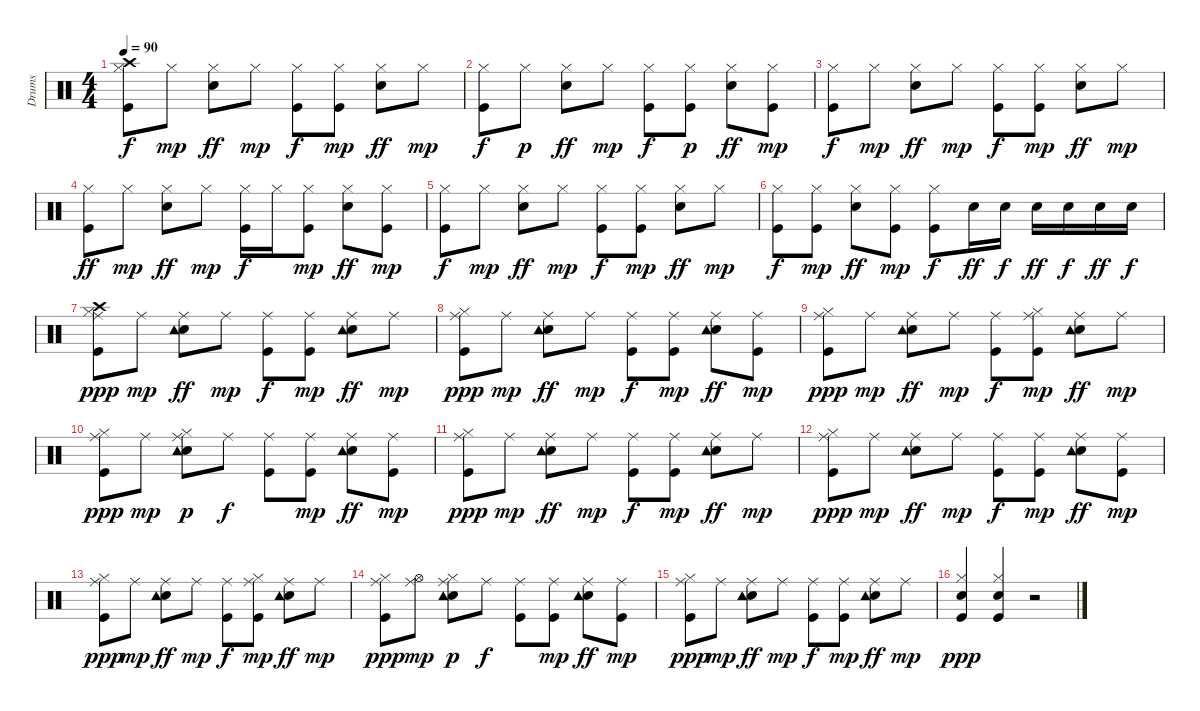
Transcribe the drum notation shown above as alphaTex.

\track ("Drums" "Drums") {instrument percussion}
\staff {score}
\articulation defaults
\ts (4 4)
\tempo 90
\clef neutral
\ks c
("Kick (hit)" "Hi-Hat (closed)" "Crash high (hit)").8{dy f} "Hi-Hat (closed)".8{dy mp} ("Snare (hit) 2" "Hi-Hat (closed)").8{dy ff} "Hi-Hat (closed)".8{dy mp} ("Kick (hit)" "Hi-Hat (closed)").8{dy f} ("Kick (hit)" "Hi-Hat (closed)").8{dy mp} ("Snare (hit) 2" "Hi-Hat (closed)").8{dy ff} "Hi-Hat (closed)".8{dy mp} |
("Kick (hit)" "Hi-Hat (closed)").8{dy f} "Hi-Hat (closed)".8{dy p} ("Snare (hit) 2" "Hi-Hat (closed)").8{dy ff} "Hi-Hat (closed)".8{dy mp} ("Kick (hit)" "Hi-Hat (closed)").8{dy f} ("Kick (hit)" "Hi-Hat (closed)").8{dy p} ("Snare (hit) 2" "Hi-Hat (closed)").8{dy ff} ("Kick (hit)" "Hi-Hat (closed)").8{dy mp} |
("Kick (hit)" "Hi-Hat (closed)").8{dy f} "Hi-Hat (closed)".8{dy mp} ("Snare (hit) 2" "Hi-Hat (closed)").8{dy ff} "Hi-Hat (closed)".8{dy mp} ("Kick (hit)" "Hi-Hat (closed)").8{dy f} ("Kick (hit)" "Hi-Hat (closed)").8{dy mp} ("Snare (hit) 2" "Hi-Hat (closed)").8{dy ff} "Hi-Hat (closed)".8{dy mp} |
("Kick (hit)" "Hi-Hat (closed)").8{dy ff} "Hi-Hat (closed)".8{dy mp} ("Snare (hit) 2" "Hi-Hat (closed)").8{dy ff} "Hi-Hat (closed)".8{dy mp} ("Kick (hit)" "Hi-Hat (closed)").16{dy f} "Hi-Hat (closed)".16 ("Kick (hit)" "Hi-Hat (closed)").8{dy mp} ("Snare (hit) 2" "Hi-Hat (closed)").8{dy ff} ("Kick (hit)" "Hi-Hat (closed)").8{dy mp} |
("Kick (hit)" "Hi-Hat (closed)").8{dy f} "Hi-Hat (closed)".8{dy mp} ("Snare (hit) 2" "Hi-Hat (closed)").8{dy ff} "Hi-Hat (closed)".8{dy mp} ("Kick (hit)" "Hi-Hat (closed)").8{dy f} ("Kick (hit)" "Hi-Hat (closed)").8{dy mp} ("Snare (hit) 2" "Hi-Hat (closed)").8{dy ff} "Hi-Hat (closed)".8{dy mp} |
("Kick (hit)" "Hi-Hat (closed)").8{dy f} ("Kick (hit)" "Hi-Hat (closed)").8{dy mp} ("Snare (hit) 2" "Hi-Hat (closed)").8{dy ff} ("Kick (hit)" "Hi-Hat (closed)").8{dy mp} ("Kick (hit)" "Hi-Hat (closed)").8{dy f} "Snare (hit) 2".16{dy ff} "Snare (hit) 2".16{dy f} "Snare (hit) 2".16{dy ff} "Snare (hit) 2".16{dy f} "Snare (hit) 2".16{dy ff} "Snare (hit) 2".16{dy f} |
("Kick (hit)" "Hi-Hat (closed)" "Crash high (hit)" "Ride (middle)").8{dy ppp} "Ride (middle)".8{dy mp} ("Snare (hit) 2" "Tambourine (hit)" "Ride (middle)").8{dy ff} "Ride (middle)".8{dy mp} ("Kick (hit)" "Ride (middle)").8{dy f} ("Kick (hit)" "Ride (middle)").8{dy mp} ("Snare (hit) 2" "Tambourine (hit)" "Ride (middle)").8{dy ff} "Ride (middle)".8{dy mp} |
("Kick (hit)" "Hi-Hat (closed)" "Ride (middle)").8{dy ppp} "Ride (middle)".8{dy mp} ("Snare (hit) 2" "Tambourine (hit)" "Ride (middle)").8{dy ff} "Ride (middle)".8{dy mp} ("Kick (hit)" "Ride (middle)").8{dy f} ("Kick (hit)" "Ride (middle)").8{dy mp} ("Snare (hit) 2" "Tambourine (hit)" "Ride (middle)").8{dy ff} ("Kick (hit)" "Ride (middle)").8{dy mp} |
("Kick (hit)" "Hi-Hat (closed)" "Ride (middle)").8{dy ppp} "Ride (middle)".8{dy mp} ("Snare (hit) 2" "Tambourine (hit)" "Ride (middle)").8{dy ff} "Ride (middle)".8{dy mp} ("Kick (hit)" "Ride (middle)").8{dy f} ("Kick (hit)" "Hi-Hat (closed)" "Ride (middle)").8{dy mp} ("Snare (hit) 2" "Tambourine (hit)" "Ride (middle)").8{dy ff} "Ride (middle)".8{dy mp} |
("Kick (hit)" "Hi-Hat (closed)" "Ride (middle)").8{dy ppp} "Ride (middle)".8{dy mp} ("Snare (hit) 2" "Hi-Hat (closed)" "Tambourine (hit)" "Ride (middle)").8{dy p} "Ride (middle)".8{dy f} ("Kick (hit)" "Ride (middle)").8 ("Kick (hit)" "Ride (middle)").8{dy mp} ("Snare (hit) 2" "Tambourine (hit)" "Ride (middle)").8{dy ff} ("Kick (hit)" "Ride (middle)").8{dy mp} |
("Kick (hit)" "Hi-Hat (closed)" "Ride (middle)").8{dy ppp} "Ride (middle)".8{dy mp} ("Snare (hit) 2" "Tambourine (hit)" "Ride (middle)").8{dy ff} "Ride (middle)".8{dy mp} ("Kick (hit)" "Ride (middle)").8{dy f} ("Kick (hit)" "Ride (middle)").8{dy mp} ("Snare (hit) 2" "Tambourine (hit)" "Ride (middle)").8{dy ff} "Ride (middle)".8{dy mp} |
("Kick (hit)" "Hi-Hat (closed)" "Ride (middle)").8{dy ppp} "Ride (middle)".8{dy mp} ("Snare (hit) 2" "Tambourine (hit)" "Ride (middle)").8{dy ff} "Ride (middle)".8{dy mp} ("Kick (hit)" "Ride (middle)").8{dy f} ("Kick (hit)" "Ride (middle)").8{dy mp} ("Snare (hit) 2" "Tambourine (hit)" "Ride (middle)").8{dy ff} ("Kick (hit)" "Ride (middle)").8{dy mp} |
("Kick (hit)" "Hi-Hat (closed)" "Ride (middle)").8{dy ppp} "Ride (middle)".8{dy mp} ("Snare (hit) 2" "Tambourine (hit)" "Ride (middle)").8{dy ff} "Ride (middle)".8{dy mp} ("Kick (hit)" "Ride (middle)").8{dy f} ("Kick (hit)" "Hi-Hat (closed)" "Ride (middle)").8{dy mp} ("Snare (hit) 2" "Tambourine (hit)" "Ride (middle)").8{dy ff} "Ride (middle)".8{dy mp} |
("Kick (hit)" "Hi-Hat (closed)" "Ride (middle)").8{dy ppp} ("Hi-Hat (open)" "Ride (middle)").8{dy mp} ("Snare (hit) 2" "Hi-Hat (closed)" "Tambourine (hit)" "Ride (middle)").8{dy p} "Ride (middle)".8{dy f} ("Kick (hit)" "Ride (middle)").8 ("Kick (hit)" "Ride (middle)").8{dy mp} ("Snare (hit) 2" "Tambourine (hit)" "Ride (middle)").8{dy ff} ("Kick (hit)" "Ride (middle)").8{dy mp} |
("Kick (hit)" "Hi-Hat (closed)" "Ride (middle)").8{dy ppp} "Ride (middle)".8{dy mp} ("Snare (hit) 2" "Tambourine (hit)" "Ride (middle)").8{dy ff} "Ride (middle)".8{dy mp} ("Kick (hit)" "Ride (middle)").8{dy f} ("Kick (hit)" "Ride (middle)").8{dy mp} ("Snare (hit) 2" "Tambourine (hit)" "Ride (middle)").8{dy ff} "Ride (middle)".8{dy mp} |
("Kick (hit)" "Snare (hit) 2" "Hi-Hat (closed)").4{dy ppp} ("Kick (hit)" "Snare (hit) 2" "Hi-Hat (closed)").4 r.2
